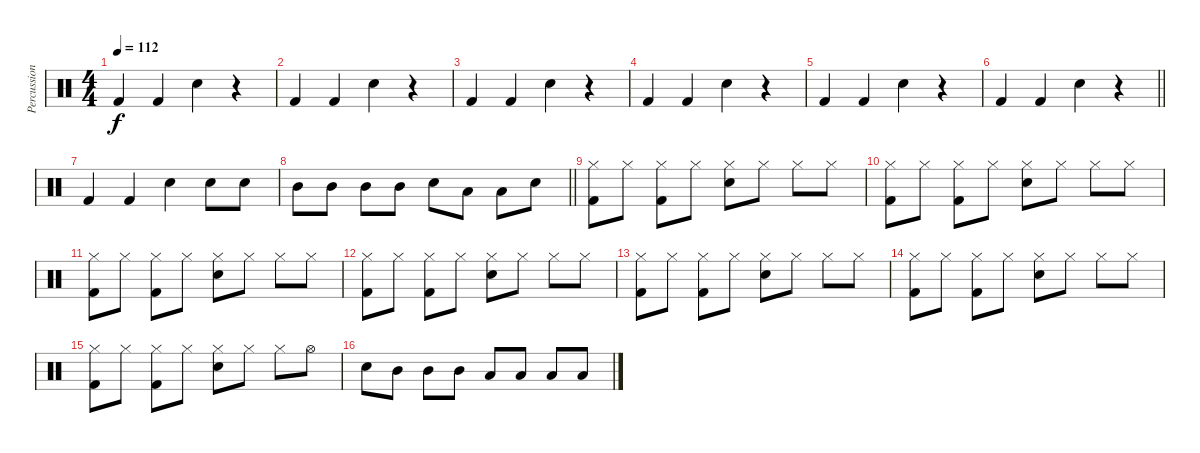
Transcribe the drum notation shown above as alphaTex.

\track ("Percussion" "Percussion") {instrument percussion}
\staff {score}
\articulation defaults
\ts (4 4)
\tempo 112
\clef neutral
\ks c "Kick (hit) 2".4{dy f} "Kick (hit) 2".4 "Snare (hit) 2".4
r.4 |
"Kick (hit) 2".4 "Kick (hit) 2".4 "Snare (hit) 2".4 r.4 |
"Kick (hit) 2".4 "Kick (hit) 2".4 "Snare (hit) 2".4 r.4 |
"Kick (hit) 2".4 "Kick (hit) 2".4 "Snare (hit) 2".4 r.4 |
"Kick (hit) 2".4 "Kick (hit) 2".4 "Snare (hit) 2".4 r.4 |
\barLineRight lightlight "Kick (hit) 2".4 "Kick (hit) 2".4 "Snare (hit) 2".4
r.4 |
"Kick (hit) 2".4 "Kick (hit) 2".4 "Snare (hit) 2".4 "Snare (hit) 2".8 "Snare (hit) 2".8 |
\barLineRight lightlight "Mid Tom (hit)".8 "Mid Tom (hit)".8 "Mid Tom (hit)".8 "Mid Tom (hit)".8 "Snare (hit) 2".8 "Low Tom (hit)".8 "Low Tom (hit)".8 "Snare (hit) 2".8
|
("Hi-Hat (closed)" "Kick (hit) 2").8 "Hi-Hat (closed)".8 ("Hi-Hat (closed)" "Kick (hit) 2").8 "Hi-Hat (closed)".8 ("Hi-Hat (closed)" "Snare (hit) 2").8 "Hi-Hat (closed)".8 "Hi-Hat (closed)".8 "Hi-Hat (closed)".8 |
("Hi-Hat (closed)" "Kick (hit) 2").8 "Hi-Hat (closed)".8 ("Hi-Hat (closed)" "Kick (hit) 2").8 "Hi-Hat (closed)".8 ("Hi-Hat (closed)" "Snare (hit) 2").8 "Hi-Hat (closed)".8 "Hi-Hat (closed)".8 "Hi-Hat (closed)".8 |
("Hi-Hat (closed)" "Kick (hit) 2").8 "Hi-Hat (closed)".8 ("Hi-Hat (closed)" "Kick (hit) 2").8 "Hi-Hat (closed)".8 ("Hi-Hat (closed)" "Snare (hit) 2").8 "Hi-Hat (closed)".8 "Hi-Hat (closed)".8 "Hi-Hat (closed)".8 |
("Hi-Hat (closed)" "Kick (hit) 2").8 "Hi-Hat (closed)".8 ("Hi-Hat (closed)" "Kick (hit) 2").8 "Hi-Hat (closed)".8 ("Hi-Hat (closed)" "Snare (hit) 2").8 "Hi-Hat (closed)".8 "Hi-Hat (closed)".8 "Hi-Hat (closed)".8 |
("Hi-Hat (closed)" "Kick (hit) 2").8 "Hi-Hat (closed)".8 ("Hi-Hat (closed)" "Kick (hit) 2").8 "Hi-Hat (closed)".8 ("Hi-Hat (closed)" "Snare (hit) 2").8 "Hi-Hat (closed)".8 "Hi-Hat (closed)".8 "Hi-Hat (closed)".8 |
("Hi-Hat (closed)" "Kick (hit) 2").8 "Hi-Hat (closed)".8 ("Hi-Hat (closed)" "Kick (hit) 2").8 "Hi-Hat (closed)".8 ("Hi-Hat (closed)" "Snare (hit) 2").8 "Hi-Hat (closed)".8 "Hi-Hat (closed)".8 "Hi-Hat (closed)".8 |
("Hi-Hat (closed)" "Kick (hit) 2").8 "Hi-Hat (closed)".8 ("Hi-Hat (closed)" "Kick (hit) 2").8 "Hi-Hat (closed)".8 ("Hi-Hat (closed)" "Snare (hit) 2").8 "Hi-Hat (closed)".8 "Hi-Hat (closed)".8 "Hi-Hat (open)".8 |
"Snare (hit) 2".8 "Mid Tom (hit)".8 "Mid Tom (hit)".8 "Mid Tom (hit)".8 "Low Tom (hit)".8 "Low Tom (hit)".8 "Low Tom (hit)".8 "Low Tom (hit)".8
